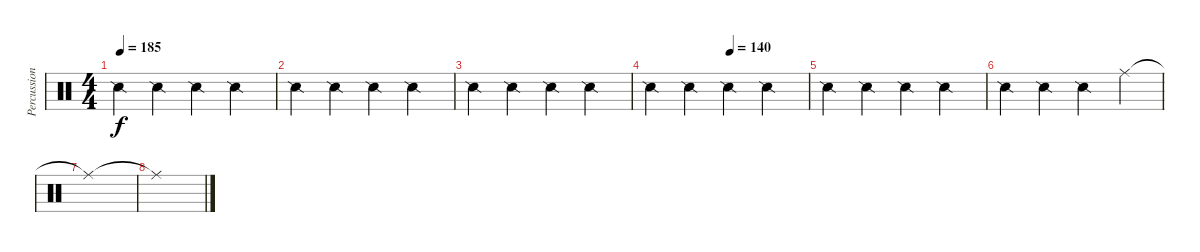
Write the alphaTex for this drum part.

\track ("Percussion" "Percussion") {instrument percussion}
\staff {score}
\articulation defaults
\ts (4 4)
\tempo 185
\clef neutral
\ks c "Snare (side stick) 2".4{dy f} "Snare (side stick) 2".4 "Snare (side stick) 2".4 "Snare (side stick) 2".4
|
"Snare (side stick) 2".4 "Snare (side stick) 2".4 "Snare (side stick) 2".4 "Snare (side stick) 2".4 |
"Snare (side stick) 2".4 "Snare (side stick) 2".4 "Snare (side stick) 2".4 "Snare (side stick) 2".4 |
\tempo (140 0.5)
"Snare (side stick) 2".4 "Snare (side stick) 2".4 "Snare (side stick) 2".4 "Snare (side stick) 2".4 |
"Snare (side stick) 2".4 "Snare (side stick) 2".4 "Snare (side stick) 2".4 "Snare (side stick) 2".4 |
"Snare (side stick) 2".4 "Snare (side stick) 2".4 "Snare (side stick) 2".4 "Ride (middle)".4 |
"Ride (middle)"{t}.1 |
"Ride (middle)"{t}.1
